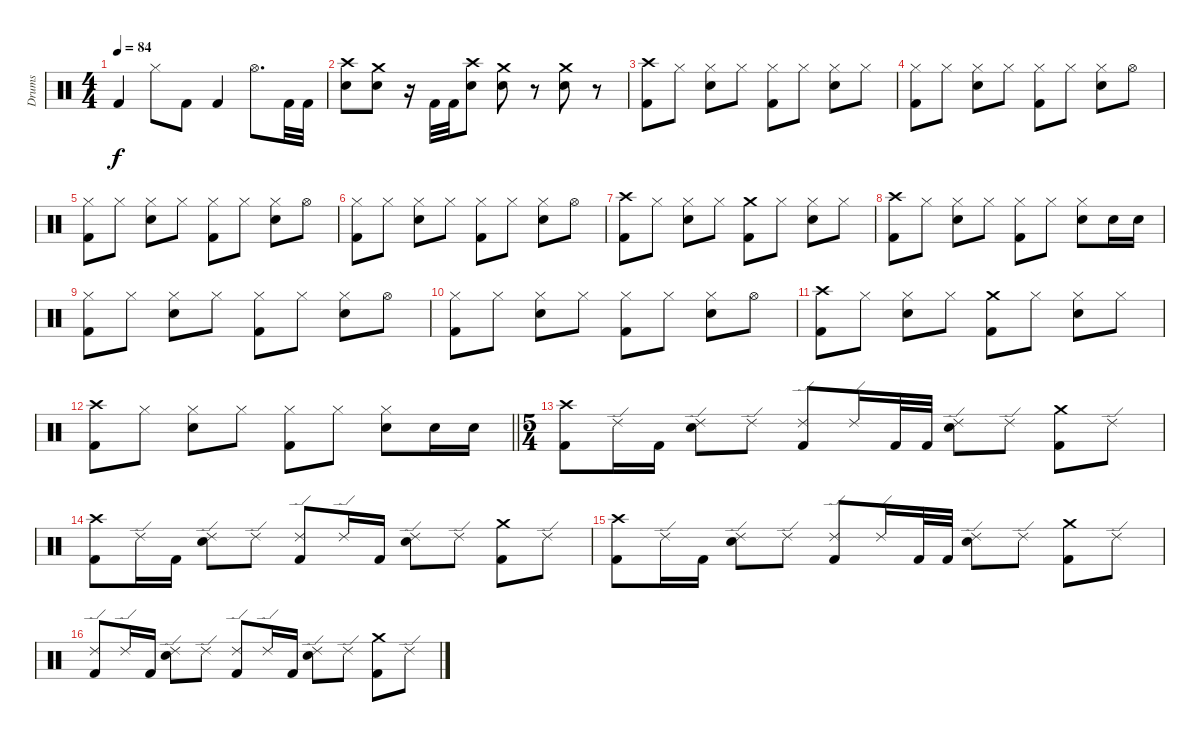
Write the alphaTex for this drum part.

\track ("Drums" "Drums") {instrument percussion}
\staff {score}
\articulation defaults
\ts (4 4)
\tempo 84
\clef neutral
\ks c "Kick (hit) 2".4{dy f} "Hi-Hat (closed)".8 "Kick (hit) 2".8 "Kick (hit) 2".4 "Hi-Hat (open)".8{d} "Kick (hit) 2".32 "Kick (hit) 2".32
|
("Crash high (hit)" "Snare (hit) 2").8 ("Crash medium (hit)" "Snare (hit) 2").8 r.16 "Kick (hit) 2".32 "Kick (hit) 2".32 ("Crash high (hit)" "Snare (hit) 2").8 ("Crash medium (hit)" "Snare (hit) 2").8 r.8 ("Crash medium (hit)" "Snare (hit) 2").8 r.8 |
("Crash high (hit)" "Kick (hit) 2").8 "Hi-Hat (closed)".8 ("Hi-Hat (closed)" "Snare (hit) 2").8 "Hi-Hat (closed)".8 ("Hi-Hat (closed)" "Kick (hit) 2").8 "Hi-Hat (closed)".8 ("Hi-Hat (closed)" "Snare (hit) 2").8 "Hi-Hat (closed)".8 |
("Hi-Hat (closed)" "Kick (hit) 2").8 "Hi-Hat (closed)".8 ("Hi-Hat (closed)" "Snare (hit) 2").8 "Hi-Hat (closed)".8 ("Hi-Hat (closed)" "Kick (hit) 2").8 "Hi-Hat (closed)".8 ("Hi-Hat (closed)" "Snare (hit) 2").8 "Hi-Hat (open)".8 |
("Hi-Hat (closed)" "Kick (hit) 2").8 "Hi-Hat (closed)".8 ("Hi-Hat (closed)" "Snare (hit) 2").8 "Hi-Hat (closed)".8 ("Hi-Hat (closed)" "Kick (hit) 2").8 "Hi-Hat (closed)".8 ("Hi-Hat (closed)" "Snare (hit) 2").8 "Hi-Hat (open)".8 |
("Hi-Hat (closed)" "Kick (hit) 2").8 "Hi-Hat (closed)".8 ("Hi-Hat (closed)" "Snare (hit) 2").8 "Hi-Hat (closed)".8 ("Hi-Hat (closed)" "Kick (hit) 2").8 "Hi-Hat (closed)".8 ("Hi-Hat (closed)" "Snare (hit) 2").8 "Hi-Hat (open)".8 |
("Crash high (hit)" "Kick (hit) 2").8 "Hi-Hat (closed)".8 ("Hi-Hat (closed)" "Snare (hit) 2").8 "Hi-Hat (closed)".8 ("Crash medium (hit)" "Kick (hit) 2").8 "Hi-Hat (closed)".8 ("Hi-Hat (closed)" "Snare (hit) 2").8 "Hi-Hat (closed)".8 |
("Crash high (hit)" "Kick (hit) 2").8 "Hi-Hat (closed)".8 ("Hi-Hat (closed)" "Snare (hit) 2").8 "Hi-Hat (closed)".8 ("Hi-Hat (closed)" "Kick (hit) 2").8 "Hi-Hat (closed)".8 ("Hi-Hat (closed)" "Snare (hit) 2").8 "Snare (hit) 2".16 "Snare (hit) 2".16 |
("Hi-Hat (closed)" "Kick (hit) 2").8 "Hi-Hat (closed)".8 ("Hi-Hat (closed)" "Snare (hit) 2").8 "Hi-Hat (closed)".8 ("Hi-Hat (closed)" "Kick (hit) 2").8 "Hi-Hat (closed)".8 ("Hi-Hat (closed)" "Snare (hit) 2").8 "Hi-Hat (open)".8 |
("Hi-Hat (closed)" "Kick (hit) 2").8 "Hi-Hat (closed)".8 ("Hi-Hat (closed)" "Snare (hit) 2").8 "Hi-Hat (closed)".8 ("Hi-Hat (closed)" "Kick (hit) 2").8 "Hi-Hat (closed)".8 ("Hi-Hat (closed)" "Snare (hit) 2").8 "Hi-Hat (open)".8 |
("Crash high (hit)" "Kick (hit) 2").8 "Hi-Hat (closed)".8 ("Hi-Hat (closed)" "Snare (hit) 2").8 "Hi-Hat (closed)".8 ("Crash medium (hit)" "Kick (hit) 2").8 "Hi-Hat (closed)".8 ("Hi-Hat (closed)" "Snare (hit) 2").8 "Hi-Hat (closed)".8 |
\barLineRight lightlight
("Crash high (hit)" "Kick (hit) 2").8 "Hi-Hat (closed)".8 ("Hi-Hat (closed)" "Snare (hit) 2").8 "Hi-Hat (closed)".8 ("Hi-Hat (closed)" "Kick (hit) 2").8 "Hi-Hat (closed)".8 ("Hi-Hat (closed)" "Snare (hit) 2").8 "Snare (hit) 2".16 "Snare (hit) 2".16 |
\ts (5 4)
("Crash high (hit)" "Kick (hit) 2").8 "Ride (edge) 2".16 "Kick (hit) 2".16 ("Ride (edge) 2" "Snare (hit) 2").8 "Ride (edge) 2".8 ("Ride (edge) 2" "Kick (hit) 2").8 "Ride (edge) 2".16 "Kick (hit) 2".32 "Kick (hit) 2".32 ("Ride (edge) 2" "Snare (hit) 2").8 "Ride (edge) 2".8 ("Crash medium (hit)" "Kick (hit) 2").8 "Ride (edge) 2".8 |
("Crash high (hit)" "Kick (hit) 2").8 "Ride (edge) 2".16 "Kick (hit) 2".16 ("Ride (edge) 2" "Snare (hit) 2").8 "Ride (edge) 2".8 ("Ride (edge) 2" "Kick (hit) 2").8 "Ride (edge) 2".16 "Kick (hit) 2".16 ("Ride (edge) 2" "Snare (hit) 2").8 "Ride (edge) 2".8 ("Crash medium (hit)" "Kick (hit) 2").8 "Ride (edge) 2".8 |
("Crash high (hit)" "Kick (hit) 2").8 "Ride (edge) 2".16 "Kick (hit) 2".16 ("Ride (edge) 2" "Snare (hit) 2").8 "Ride (edge) 2".8 ("Ride (edge) 2" "Kick (hit) 2").8 "Ride (edge) 2".16 "Kick (hit) 2".32 "Kick (hit) 2".32 ("Ride (edge) 2" "Snare (hit) 2").8 "Ride (edge) 2".8 ("Crash medium (hit)" "Kick (hit) 2").8 "Ride (edge) 2".8 |
("Ride (edge) 2" "Kick (hit) 2").8 "Ride (edge) 2".16 "Kick (hit) 2".16 ("Ride (edge) 2" "Snare (hit) 2").8 "Ride (edge) 2".8 ("Ride (edge) 2" "Kick (hit) 2").8 "Ride (edge) 2".16 "Kick (hit) 2".16 ("Ride (edge) 2" "Snare (hit) 2").8 "Ride (edge) 2".8 ("Crash medium (hit)" "Kick (hit) 2").8 "Ride (edge) 2".8
